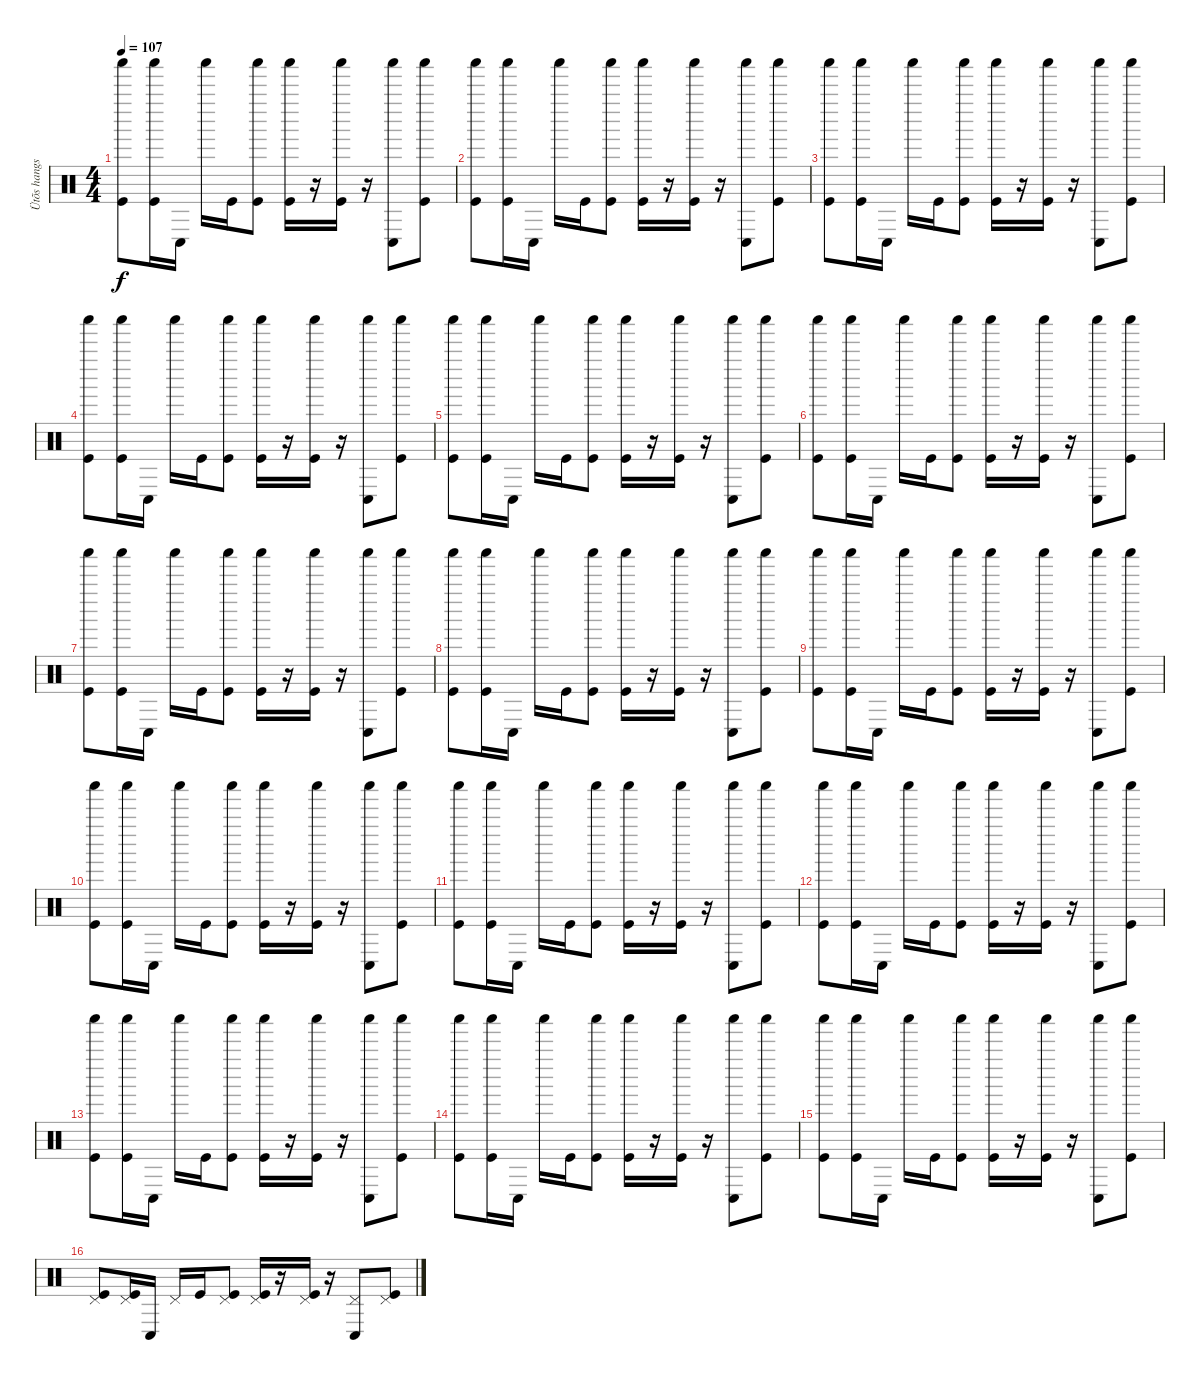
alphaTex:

\track ("Ütõs hangszer" "Ütõs hangs") {instrument percussion}
\staff {score}
\articulation defaults
\ts (4 4)
\tempo 107
\clef neutral
\ks c
("Shaker (hit)" "Kick (hit)").8{dy f} ("Shaker (hit)" "Kick (hit)").16 "Conga low (hit)".16 "Shaker (hit)".16 "Kick (hit)".16 ("Shaker (hit)" "Kick (hit)").8 ("Shaker (hit)" "Kick (hit)").16 r.16 ("Shaker (hit)" "Kick (hit)").16 r.16 ("Shaker (hit)" "Conga low (hit)").8 ("Shaker (hit)" "Kick (hit)").8 |
("Shaker (hit)" "Kick (hit)").8 ("Shaker (hit)" "Kick (hit)").16 "Conga low (hit)".16 "Shaker (hit)".16 "Kick (hit)".16 ("Shaker (hit)" "Kick (hit)").8 ("Shaker (hit)" "Kick (hit)").16 r.16 ("Shaker (hit)" "Kick (hit)").16 r.16 ("Shaker (hit)" "Conga low (hit)").8 ("Shaker (hit)" "Kick (hit)").8 |
("Shaker (hit)" "Kick (hit)").8 ("Shaker (hit)" "Kick (hit)").16 "Conga low (hit)".16 "Shaker (hit)".16 "Kick (hit)".16 ("Shaker (hit)" "Kick (hit)").8 ("Shaker (hit)" "Kick (hit)").16 r.16 ("Shaker (hit)" "Kick (hit)").16 r.16 ("Shaker (hit)" "Conga low (hit)").8 ("Shaker (hit)" "Kick (hit)").8 |
("Shaker (hit)" "Kick (hit)").8 ("Shaker (hit)" "Kick (hit)").16 "Conga low (hit)".16 "Shaker (hit)".16 "Kick (hit)".16 ("Shaker (hit)" "Kick (hit)").8 ("Shaker (hit)" "Kick (hit)").16 r.16 ("Shaker (hit)" "Kick (hit)").16 r.16 ("Shaker (hit)" "Conga low (hit)").8 ("Shaker (hit)" "Kick (hit)").8 |
("Shaker (hit)" "Kick (hit)").8 ("Shaker (hit)" "Kick (hit)").16 "Conga low (hit)".16 "Shaker (hit)".16 "Kick (hit)".16 ("Shaker (hit)" "Kick (hit)").8 ("Shaker (hit)" "Kick (hit)").16 r.16 ("Shaker (hit)" "Kick (hit)").16 r.16 ("Shaker (hit)" "Conga low (hit)").8 ("Shaker (hit)" "Kick (hit)").8 |
("Shaker (hit)" "Kick (hit)").8 ("Shaker (hit)" "Kick (hit)").16 "Conga low (hit)".16 "Shaker (hit)".16 "Kick (hit)".16 ("Shaker (hit)" "Kick (hit)").8 ("Shaker (hit)" "Kick (hit)").16 r.16 ("Shaker (hit)" "Kick (hit)").16 r.16 ("Shaker (hit)" "Conga low (hit)").8 ("Shaker (hit)" "Kick (hit)").8 |
("Shaker (hit)" "Kick (hit)").8 ("Shaker (hit)" "Kick (hit)").16 "Conga low (hit)".16 "Shaker (hit)".16 "Kick (hit)".16 ("Shaker (hit)" "Kick (hit)").8 ("Shaker (hit)" "Kick (hit)").16 r.16 ("Shaker (hit)" "Kick (hit)").16 r.16 ("Shaker (hit)" "Conga low (hit)").8 ("Shaker (hit)" "Kick (hit)").8 |
("Shaker (hit)" "Kick (hit)").8 ("Shaker (hit)" "Kick (hit)").16 "Conga low (hit)".16 "Shaker (hit)".16 "Kick (hit)".16 ("Shaker (hit)" "Kick (hit)").8 ("Shaker (hit)" "Kick (hit)").16 r.16 ("Shaker (hit)" "Kick (hit)").16 r.16 ("Shaker (hit)" "Conga low (hit)").8 ("Shaker (hit)" "Kick (hit)").8 |
("Shaker (hit)" "Kick (hit)").8 ("Shaker (hit)" "Kick (hit)").16 "Conga low (hit)".16 "Shaker (hit)".16 "Kick (hit)".16 ("Shaker (hit)" "Kick (hit)").8 ("Shaker (hit)" "Kick (hit)").16 r.16 ("Shaker (hit)" "Kick (hit)").16 r.16 ("Shaker (hit)" "Conga low (hit)").8 ("Shaker (hit)" "Kick (hit)").8 |
("Shaker (hit)" "Kick (hit)").8 ("Shaker (hit)" "Kick (hit)").16 "Conga low (hit)".16 "Shaker (hit)".16 "Kick (hit)".16 ("Shaker (hit)" "Kick (hit)").8 ("Shaker (hit)" "Kick (hit)").16 r.16 ("Shaker (hit)" "Kick (hit)").16 r.16 ("Shaker (hit)" "Conga low (hit)").8 ("Shaker (hit)" "Kick (hit)").8 |
("Shaker (hit)" "Kick (hit)").8 ("Shaker (hit)" "Kick (hit)").16 "Conga low (hit)".16 "Shaker (hit)".16 "Kick (hit)".16 ("Shaker (hit)" "Kick (hit)").8 ("Shaker (hit)" "Kick (hit)").16 r.16 ("Shaker (hit)" "Kick (hit)").16 r.16 ("Shaker (hit)" "Conga low (hit)").8 ("Shaker (hit)" "Kick (hit)").8 |
("Shaker (hit)" "Kick (hit)").8 ("Shaker (hit)" "Kick (hit)").16 "Conga low (hit)".16 "Shaker (hit)".16 "Kick (hit)".16 ("Shaker (hit)" "Kick (hit)").8 ("Shaker (hit)" "Kick (hit)").16 r.16 ("Shaker (hit)" "Kick (hit)").16 r.16 ("Shaker (hit)" "Conga low (hit)").8 ("Shaker (hit)" "Kick (hit)").8 |
("Shaker (hit)" "Kick (hit)").8 ("Shaker (hit)" "Kick (hit)").16 "Conga low (hit)".16 "Shaker (hit)".16 "Kick (hit)".16 ("Shaker (hit)" "Kick (hit)").8 ("Shaker (hit)" "Kick (hit)").16 r.16 ("Shaker (hit)" "Kick (hit)").16 r.16 ("Shaker (hit)" "Conga low (hit)").8 ("Shaker (hit)" "Kick (hit)").8 |
("Shaker (hit)" "Kick (hit)").8 ("Shaker (hit)" "Kick (hit)").16 "Conga low (hit)".16 "Shaker (hit)".16 "Kick (hit)".16 ("Shaker (hit)" "Kick (hit)").8 ("Shaker (hit)" "Kick (hit)").16 r.16 ("Shaker (hit)" "Kick (hit)").16 r.16 ("Shaker (hit)" "Conga low (hit)").8 ("Shaker (hit)" "Kick (hit)").8 |
("Shaker (hit)" "Kick (hit)").8 ("Shaker (hit)" "Kick (hit)").16 "Conga low (hit)".16 "Shaker (hit)".16 "Kick (hit)".16 ("Shaker (hit)" "Kick (hit)").8 ("Shaker (hit)" "Kick (hit)").16 r.16 ("Shaker (hit)" "Kick (hit)").16 r.16 ("Shaker (hit)" "Conga low (hit)").8 ("Shaker (hit)" "Kick (hit)").8 |
("Pedal Hi-Hat (hit)" "Kick (hit)").8 ("Pedal Hi-Hat (hit)" "Kick (hit)").16 "Conga low (hit)".16 "Pedal Hi-Hat (hit)".16 "Kick (hit)".16 ("Pedal Hi-Hat (hit)" "Kick (hit)").8 ("Pedal Hi-Hat (hit)" "Kick (hit)").16 r.16 ("Pedal Hi-Hat (hit)" "Kick (hit)").16 r.16 ("Pedal Hi-Hat (hit)" "Conga low (hit)").8 ("Pedal Hi-Hat (hit)" "Kick (hit)").8
